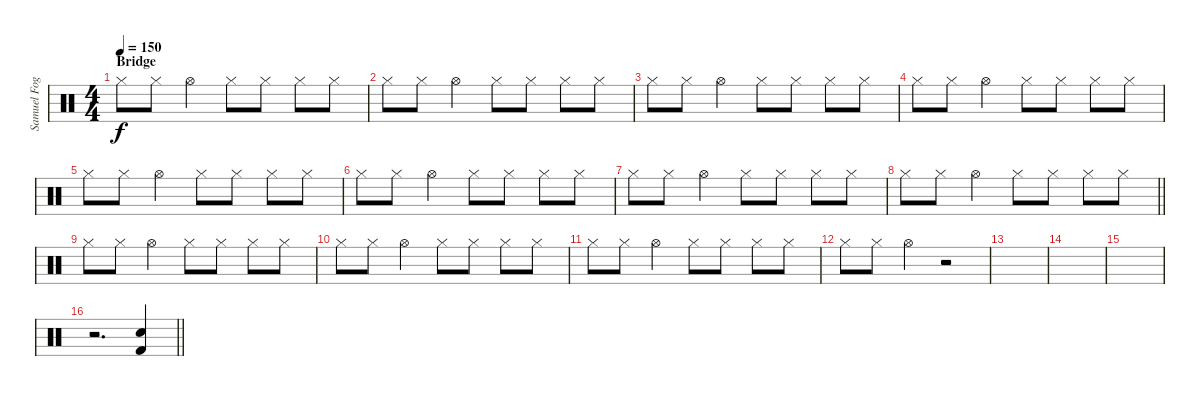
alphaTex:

\track ("Samuel Fogarino" "Samuel Fog") {instrument percussion}
\staff {score}
\articulation defaults
\ts (4 4)
\section ("" "Bridge")
\tempo 150
\clef neutral
\ks c "Hi-Hat (closed)".8{dy f} "Hi-Hat (closed)".8 "Hi-Hat (open)".4 "Hi-Hat (closed)".8 "Hi-Hat (closed)".8 "Hi-Hat (closed)".8 "Hi-Hat (closed)".8
|
"Hi-Hat (closed)".8 "Hi-Hat (closed)".8 "Hi-Hat (open)".4 "Hi-Hat (closed)".8 "Hi-Hat (closed)".8 "Hi-Hat (closed)".8 "Hi-Hat (closed)".8 |
"Hi-Hat (closed)".8 "Hi-Hat (closed)".8 "Hi-Hat (open)".4 "Hi-Hat (closed)".8 "Hi-Hat (closed)".8 "Hi-Hat (closed)".8 "Hi-Hat (closed)".8 |
"Hi-Hat (closed)".8 "Hi-Hat (closed)".8 "Hi-Hat (open)".4 "Hi-Hat (closed)".8 "Hi-Hat (closed)".8 "Hi-Hat (closed)".8 "Hi-Hat (closed)".8 |
"Hi-Hat (closed)".8 "Hi-Hat (closed)".8 "Hi-Hat (open)".4 "Hi-Hat (closed)".8 "Hi-Hat (closed)".8 "Hi-Hat (closed)".8 "Hi-Hat (closed)".8 |
"Hi-Hat (closed)".8 "Hi-Hat (closed)".8 "Hi-Hat (open)".4 "Hi-Hat (closed)".8 "Hi-Hat (closed)".8 "Hi-Hat (closed)".8 "Hi-Hat (closed)".8 |
"Hi-Hat (closed)".8 "Hi-Hat (closed)".8 "Hi-Hat (open)".4 "Hi-Hat (closed)".8 "Hi-Hat (closed)".8 "Hi-Hat (closed)".8 "Hi-Hat (closed)".8 |
\barLineRight lightlight "Hi-Hat (closed)".8 "Hi-Hat (closed)".8 "Hi-Hat (open)".4 "Hi-Hat (closed)".8 "Hi-Hat (closed)".8 "Hi-Hat (closed)".8 "Hi-Hat (closed)".8
|
"Hi-Hat (closed)".8 "Hi-Hat (closed)".8 "Hi-Hat (open)".4 "Hi-Hat (closed)".8 "Hi-Hat (closed)".8 "Hi-Hat (closed)".8 "Hi-Hat (closed)".8 |
"Hi-Hat (closed)".8 "Hi-Hat (closed)".8 "Hi-Hat (open)".4 "Hi-Hat (closed)".8 "Hi-Hat (closed)".8 "Hi-Hat (closed)".8 "Hi-Hat (closed)".8 |
"Hi-Hat (closed)".8 "Hi-Hat (closed)".8 "Hi-Hat (open)".4 "Hi-Hat (closed)".8 "Hi-Hat (closed)".8 "Hi-Hat (closed)".8 "Hi-Hat (closed)".8 |
"Hi-Hat (closed)".8 "Hi-Hat (closed)".8 "Hi-Hat (open)".4 r.2 |
|
|
|
\barLineRight lightlight
r.2{d} ("Kick (hit) 2" "Electric Snare (hit)").4
